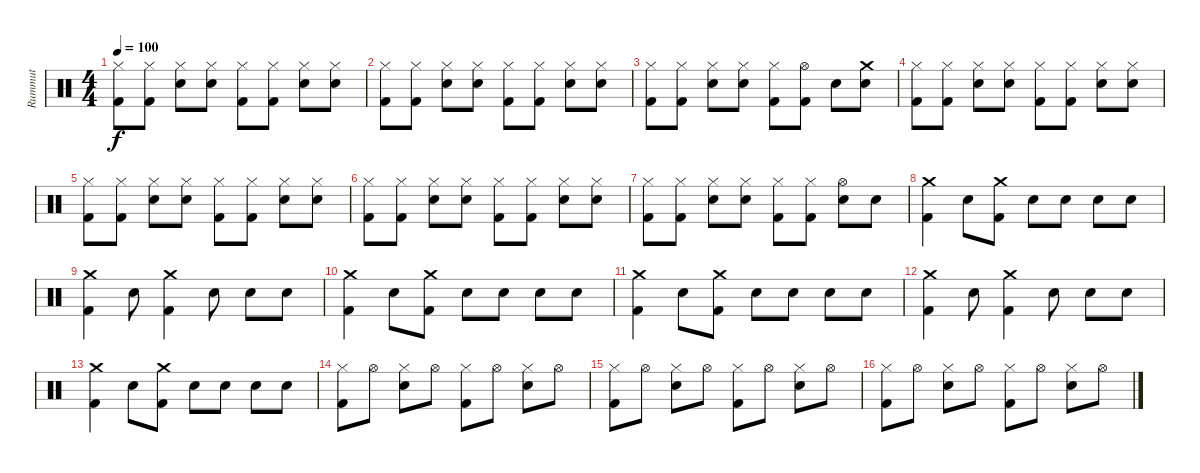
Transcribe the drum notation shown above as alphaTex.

\track ("Rummut" "Rummut") {instrument percussion}
\staff {score}
\articulation defaults
\ts (4 4)
\tempo 100
\clef neutral
\ks c
("Hi-Hat (closed)" "Kick (hit) 2").8{dy f} ("Hi-Hat (closed)" "Kick (hit) 2").8 ("Hi-Hat (closed)" "Snare (hit) 2").8 ("Hi-Hat (closed)" "Snare (hit) 2").8 ("Hi-Hat (closed)" "Kick (hit) 2").8 ("Hi-Hat (closed)" "Kick (hit) 2").8 ("Hi-Hat (closed)" "Snare (hit) 2").8 ("Hi-Hat (closed)" "Snare (hit) 2").8 |
("Hi-Hat (closed)" "Kick (hit) 2").8 ("Hi-Hat (closed)" "Kick (hit) 2").8 ("Hi-Hat (closed)" "Snare (hit) 2").8 ("Hi-Hat (closed)" "Snare (hit) 2").8 ("Hi-Hat (closed)" "Kick (hit) 2").8 ("Hi-Hat (closed)" "Kick (hit) 2").8 ("Hi-Hat (closed)" "Snare (hit) 2").8 ("Hi-Hat (closed)" "Snare (hit) 2").8 |
("Hi-Hat (closed)" "Kick (hit) 2").8 ("Hi-Hat (closed)" "Kick (hit) 2").8 ("Hi-Hat (closed)" "Snare (hit) 2").8 ("Hi-Hat (closed)" "Snare (hit) 2").8 ("Hi-Hat (closed)" "Kick (hit) 2").8 ("Hi-Hat (open)" "Kick (hit) 2").8 "Snare (hit) 2".8 ("Crash medium (hit)" "Snare (hit) 2").8 |
("Hi-Hat (closed)" "Kick (hit) 2").8 ("Hi-Hat (closed)" "Kick (hit) 2").8 ("Hi-Hat (closed)" "Snare (hit) 2").8 ("Hi-Hat (closed)" "Snare (hit) 2").8 ("Hi-Hat (closed)" "Kick (hit) 2").8 ("Hi-Hat (closed)" "Kick (hit) 2").8 ("Hi-Hat (closed)" "Snare (hit) 2").8 ("Hi-Hat (closed)" "Snare (hit) 2").8 |
("Hi-Hat (closed)" "Kick (hit) 2").8 ("Hi-Hat (closed)" "Kick (hit) 2").8 ("Hi-Hat (closed)" "Snare (hit) 2").8 ("Hi-Hat (closed)" "Snare (hit) 2").8 ("Hi-Hat (closed)" "Kick (hit) 2").8 ("Hi-Hat (closed)" "Kick (hit) 2").8 ("Hi-Hat (closed)" "Snare (hit) 2").8 ("Hi-Hat (closed)" "Snare (hit) 2").8 |
("Hi-Hat (closed)" "Kick (hit) 2").8 ("Hi-Hat (closed)" "Kick (hit) 2").8 ("Hi-Hat (closed)" "Snare (hit) 2").8 ("Hi-Hat (closed)" "Snare (hit) 2").8 ("Hi-Hat (closed)" "Kick (hit) 2").8 ("Hi-Hat (closed)" "Kick (hit) 2").8 ("Hi-Hat (closed)" "Snare (hit) 2").8 ("Hi-Hat (closed)" "Snare (hit) 2").8 |
("Hi-Hat (closed)" "Kick (hit) 2").8 ("Hi-Hat (closed)" "Kick (hit) 2").8 ("Hi-Hat (closed)" "Snare (hit) 2").8 ("Hi-Hat (closed)" "Snare (hit) 2").8 ("Hi-Hat (closed)" "Kick (hit) 2").8 ("Hi-Hat (closed)" "Kick (hit) 2").8 ("Hi-Hat (open)" "Snare (hit) 2").8 "Snare (hit) 2".8 |
("Crash medium (hit)" "Kick (hit) 2").4 "Snare (hit) 2".8 ("Crash medium (hit)" "Kick (hit) 2").8 "Snare (hit) 2".8 "Snare (hit) 2".8 "Snare (hit) 2".8 "Snare (hit) 2".8 |
("Crash medium (hit)" "Kick (hit) 2").4 "Snare (hit) 2".8 ("Crash medium (hit)" "Kick (hit) 2").4 "Snare (hit) 2".8 "Snare (hit) 2".8 "Snare (hit) 2".8 |
("Crash medium (hit)" "Kick (hit) 2").4 "Snare (hit) 2".8 ("Crash medium (hit)" "Kick (hit) 2").8 "Snare (hit) 2".8 "Snare (hit) 2".8 "Snare (hit) 2".8 "Snare (hit) 2".8 |
("Crash medium (hit)" "Kick (hit) 2").4 "Snare (hit) 2".8 ("Crash medium (hit)" "Kick (hit) 2").8 "Snare (hit) 2".8 "Snare (hit) 2".8 "Snare (hit) 2".8 "Snare (hit) 2".8 |
("Crash medium (hit)" "Kick (hit) 2").4 "Snare (hit) 2".8 ("Crash medium (hit)" "Kick (hit) 2").4 "Snare (hit) 2".8 "Snare (hit) 2".8 "Snare (hit) 2".8 |
("Crash medium (hit)" "Kick (hit) 2").4 "Snare (hit) 2".8 ("Crash medium (hit)" "Kick (hit) 2").8 "Snare (hit) 2".8 "Snare (hit) 2".8 "Snare (hit) 2".8 "Snare (hit) 2".8 |
("Hi-Hat (closed)" "Kick (hit) 2").8 "Hi-Hat (open)".8 ("Hi-Hat (closed)" "Snare (hit) 2").8 "Hi-Hat (open)".8 ("Hi-Hat (closed)" "Kick (hit) 2").8 "Hi-Hat (open)".8 ("Hi-Hat (closed)" "Snare (hit) 2").8 "Hi-Hat (open)".8 |
("Hi-Hat (closed)" "Kick (hit) 2").8 "Hi-Hat (open)".8 ("Hi-Hat (closed)" "Snare (hit) 2").8 "Hi-Hat (open)".8 ("Hi-Hat (closed)" "Kick (hit) 2").8 "Hi-Hat (open)".8 ("Hi-Hat (closed)" "Snare (hit) 2").8 "Hi-Hat (open)".8 |
("Hi-Hat (closed)" "Kick (hit) 2").8 "Hi-Hat (open)".8 ("Hi-Hat (closed)" "Snare (hit) 2").8 "Hi-Hat (open)".8 ("Hi-Hat (closed)" "Kick (hit) 2").8 "Hi-Hat (open)".8 ("Hi-Hat (closed)" "Snare (hit) 2").8 "Hi-Hat (open)".8
